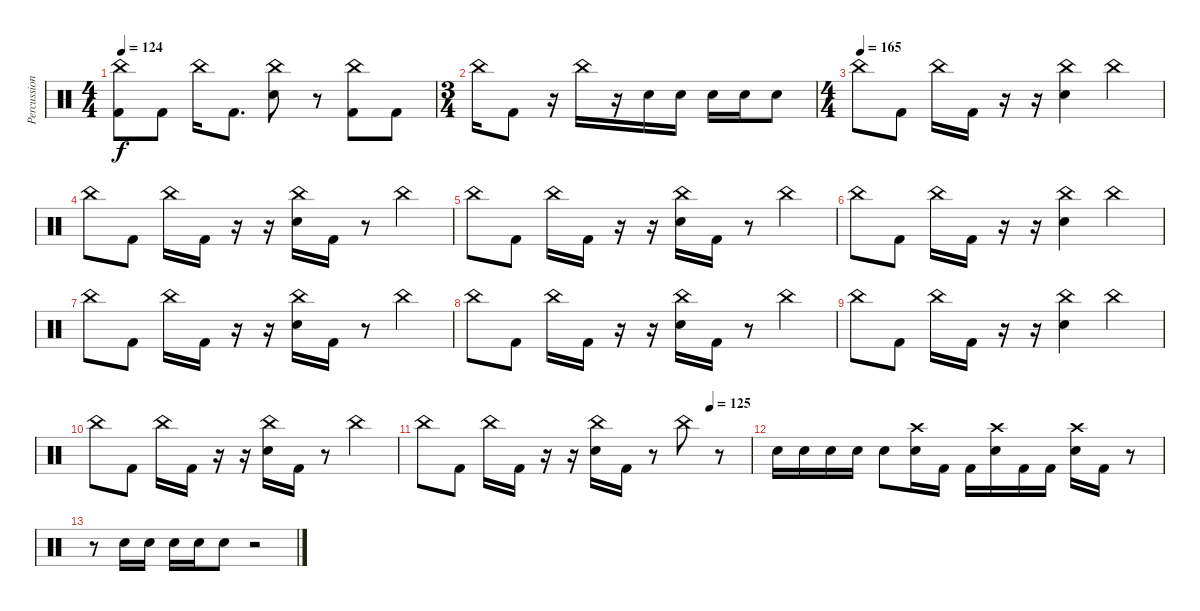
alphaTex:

\track ("Percussion" "Percussion") {instrument percussion}
\staff {score}
\articulation defaults
\ts (4 4)
\tempo 124
\clef neutral
\ks c
("China (hit)" "Kick (hit) 2").8{dy f} "Kick (hit) 2".8 "China (hit)".16 "Kick (hit) 2".8{d} ("China (hit)" "Electric Snare (hit)").8 r.8 ("China (hit)" "Kick (hit) 2").8 "Kick (hit) 2".8 |
\ts (3 4)
"China (hit)".16 "Kick (hit) 2".8 r.16 "China (hit)".16 r.16 "Electric Snare (hit)".16 "Electric Snare (hit)".16 "Electric Snare (hit)".16 "Electric Snare (hit)".16 "Electric Snare (hit)".8 |
\ts (4 4)
\tempo (165)
"China (hit)".8 "Kick (hit) 2".8 "China (hit)".16 "Kick (hit) 2".16 r.16 r.16 ("China (hit)" "Electric Snare (hit)").4 "China (hit)".4 |
"China (hit)".8 "Kick (hit) 2".8 "China (hit)".16 "Kick (hit) 2".16 r.16 r.16 ("China (hit)" "Electric Snare (hit)").16 "Kick (hit) 2".16 r.8 "China (hit)".4 |
"China (hit)".8 "Kick (hit) 2".8 "China (hit)".16 "Kick (hit) 2".16 r.16 r.16 ("China (hit)" "Electric Snare (hit)").16 "Kick (hit) 2".16 r.8 "China (hit)".4 |
"China (hit)".8 "Kick (hit) 2".8 "China (hit)".16 "Kick (hit) 2".16 r.16 r.16 ("China (hit)" "Electric Snare (hit)").4 "China (hit)".4 |
"China (hit)".8 "Kick (hit) 2".8 "China (hit)".16 "Kick (hit) 2".16 r.16 r.16 ("China (hit)" "Electric Snare (hit)").16 "Kick (hit) 2".16 r.8 "China (hit)".4 |
"China (hit)".8 "Kick (hit) 2".8 "China (hit)".16 "Kick (hit) 2".16 r.16 r.16 ("China (hit)" "Electric Snare (hit)").16 "Kick (hit) 2".16 r.8 "China (hit)".4 |
"China (hit)".8 "Kick (hit) 2".8 "China (hit)".16 "Kick (hit) 2".16 r.16 r.16 ("China (hit)" "Electric Snare (hit)").4 "China (hit)".4 |
"China (hit)".8 "Kick (hit) 2".8 "China (hit)".16 "Kick (hit) 2".16 r.16 r.16 ("China (hit)" "Electric Snare (hit)").16 "Kick (hit) 2".16 r.8 "China (hit)".4 |
\tempo (125 0.875)
"China (hit)".8 "Kick (hit) 2".8 "China (hit)".16 "Kick (hit) 2".16 r.16 r.16 ("China (hit)" "Electric Snare (hit)").16 "Kick (hit) 2".16 r.8 "China (hit)".8 r.8 |
"Electric Snare (hit)".16 "Electric Snare (hit)".16 "Electric Snare (hit)".16 "Electric Snare (hit)".16 "Electric Snare (hit)".8 ("Crash high (hit)" "Electric Snare (hit)").16 "Kick (hit) 2".16 "Kick (hit) 2".16 ("Crash high (hit)" "Electric Snare (hit)").16 "Kick (hit) 2".16 "Kick (hit) 2".16 ("Crash high (hit)" "Electric Snare (hit)").16 "Kick (hit) 2".16 r.8 |
r.8 "Electric Snare (hit)".16 "Electric Snare (hit)".16 "Electric Snare (hit)".16 "Electric Snare (hit)".16 "Electric Snare (hit)".8 r.2
